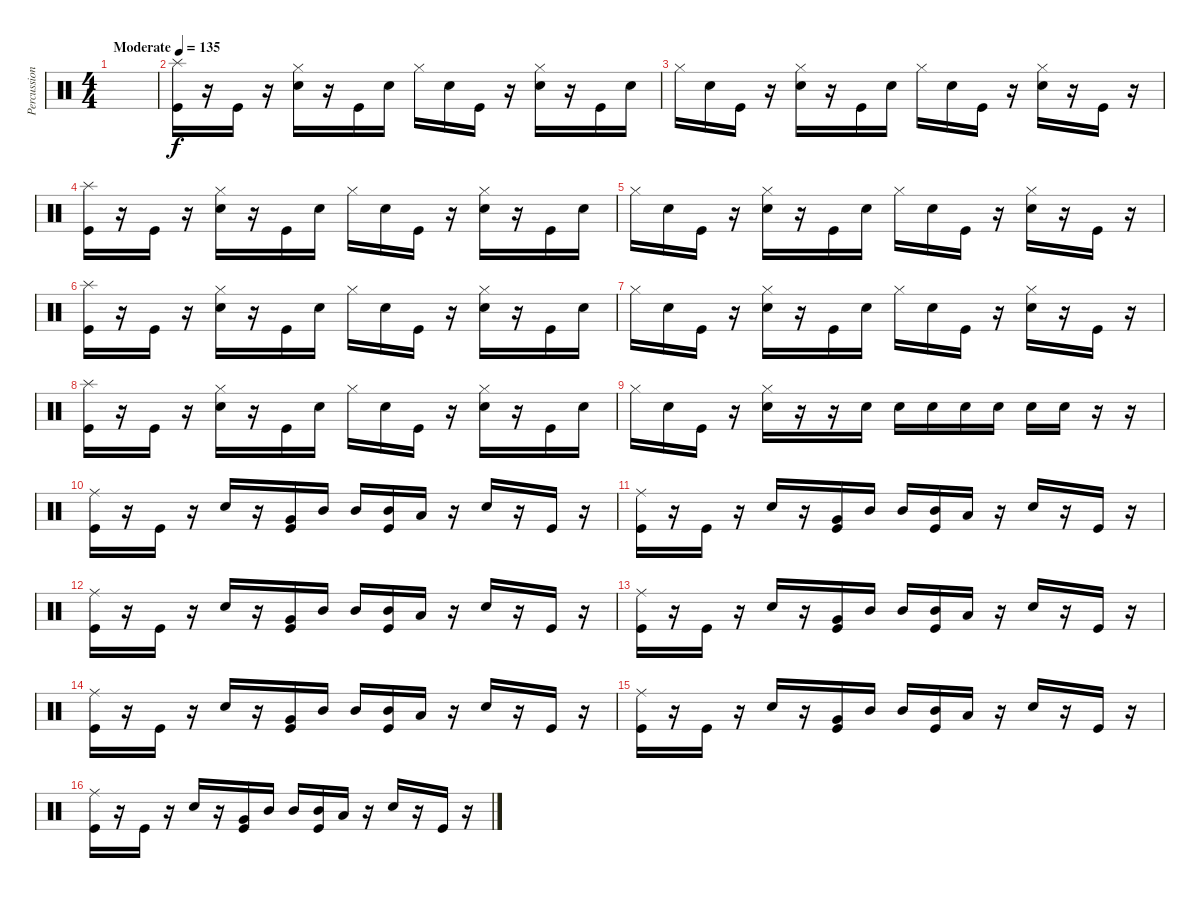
\track ("Percussion" "Percussion") {instrument percussion}
\staff {score}
\articulation defaults
\ts (4 4)
\tempo (135 "Moderate")
\clef neutral
\ks c
|
("Splash (hit)" "Kick (hit)").16 r.16 "Kick (hit)".16 r.16 ("Hi-Hat (closed)" "Snare (hit) 2").16 r.16 "Kick (hit)".16 "Snare (hit) 2".16 "Hi-Hat (closed)".16 "Snare (hit) 2".16 "Kick (hit)".16 r.16 ("Hi-Hat (closed)" "Snare (hit) 2").16 r.16 "Kick (hit)".16 "Snare (hit) 2".16 |
"Hi-Hat (closed)".16 "Snare (hit) 2".16 "Kick (hit)".16 r.16 ("Hi-Hat (closed)" "Snare (hit) 2").16 r.16 "Kick (hit)".16 "Snare (hit) 2".16 "Hi-Hat (closed)".16 "Snare (hit) 2".16 "Kick (hit)".16 r.16 ("Hi-Hat (closed)" "Snare (hit) 2").16 r.16 "Kick (hit)".16 r.16 |
("Splash (hit)" "Kick (hit)").16 r.16 "Kick (hit)".16 r.16 ("Hi-Hat (closed)" "Snare (hit) 2").16 r.16 "Kick (hit)".16 "Snare (hit) 2".16 "Hi-Hat (closed)".16 "Snare (hit) 2".16 "Kick (hit)".16 r.16 ("Hi-Hat (closed)" "Snare (hit) 2").16 r.16 "Kick (hit)".16 "Snare (hit) 2".16 |
"Hi-Hat (closed)".16 "Snare (hit) 2".16 "Kick (hit)".16 r.16 ("Hi-Hat (closed)" "Snare (hit) 2").16 r.16 "Kick (hit)".16 "Snare (hit) 2".16 "Hi-Hat (closed)".16 "Snare (hit) 2".16 "Kick (hit)".16 r.16 ("Hi-Hat (closed)" "Snare (hit) 2").16 r.16 "Kick (hit)".16 r.16 |
("Splash (hit)" "Kick (hit)").16 r.16 "Kick (hit)".16 r.16 ("Hi-Hat (closed)" "Snare (hit) 2").16 r.16 "Kick (hit)".16 "Snare (hit) 2".16 "Hi-Hat (closed)".16 "Snare (hit) 2".16 "Kick (hit)".16 r.16 ("Hi-Hat (closed)" "Snare (hit) 2").16 r.16 "Kick (hit)".16 "Snare (hit) 2".16 |
"Hi-Hat (closed)".16 "Snare (hit) 2".16 "Kick (hit)".16 r.16 ("Hi-Hat (closed)" "Snare (hit) 2").16 r.16 "Kick (hit)".16 "Snare (hit) 2".16 "Hi-Hat (closed)".16 "Snare (hit) 2".16 "Kick (hit)".16 r.16 ("Hi-Hat (closed)" "Snare (hit) 2").16 r.16 "Kick (hit)".16 r.16 |
("Splash (hit)" "Kick (hit)").16 r.16 "Kick (hit)".16 r.16 ("Hi-Hat (closed)" "Snare (hit) 2").16 r.16 "Kick (hit)".16 "Snare (hit) 2".16 "Hi-Hat (closed)".16 "Snare (hit) 2".16 "Kick (hit)".16 r.16 ("Hi-Hat (closed)" "Snare (hit) 2").16 r.16 "Kick (hit)".16 "Snare (hit) 2".16 |
"Hi-Hat (closed)".16 "Snare (hit) 2".16 "Kick (hit)".16 r.16 ("Hi-Hat (closed)" "Snare (hit) 2").16 r.16 r.16 "Snare (hit) 2".16 "Snare (hit) 2".16 "Snare (hit) 2".16 "Snare (hit) 2".16 "Snare (hit) 2".16 "Snare (hit) 2".16 "Snare (hit) 2".16 r.16 r.16 |
("Ride (middle)" "Kick (hit)").16 r.16 "Kick (hit)".16 r.16 "Snare (hit) 2".16 r.16 ("Very Low Tom (hit)" "Kick (hit)").16 "Mid Tom (hit)".16 "Mid Tom (hit)".16 ("Mid Tom (hit)" "Kick (hit)").16 "Low Floor Tom (hit)".16 r.16 "Snare (hit) 2".16 r.16 "Kick (hit)".16 r.16 |
("Ride (middle)" "Kick (hit)").16 r.16 "Kick (hit)".16 r.16 "Snare (hit) 2".16 r.16 ("Very Low Tom (hit)" "Kick (hit)").16 "Mid Tom (hit)".16 "Mid Tom (hit)".16 ("Mid Tom (hit)" "Kick (hit)").16 "Low Floor Tom (hit)".16 r.16 "Snare (hit) 2".16 r.16 "Kick (hit)".16 r.16 |
("Ride (middle)" "Kick (hit)").16 r.16 "Kick (hit)".16 r.16 "Snare (hit) 2".16 r.16 ("Very Low Tom (hit)" "Kick (hit)").16 "Mid Tom (hit)".16 "Mid Tom (hit)".16 ("Mid Tom (hit)" "Kick (hit)").16 "Low Floor Tom (hit)".16 r.16 "Snare (hit) 2".16 r.16 "Kick (hit)".16 r.16 |
("Ride (middle)" "Kick (hit)").16 r.16 "Kick (hit)".16 r.16 "Snare (hit) 2".16 r.16 ("Very Low Tom (hit)" "Kick (hit)").16 "Mid Tom (hit)".16 "Mid Tom (hit)".16 ("Mid Tom (hit)" "Kick (hit)").16 "Low Floor Tom (hit)".16 r.16 "Snare (hit) 2".16 r.16 "Kick (hit)".16 r.16 |
("Ride (middle)" "Kick (hit)").16 r.16 "Kick (hit)".16 r.16 "Snare (hit) 2".16 r.16 ("Very Low Tom (hit)" "Kick (hit)").16 "Mid Tom (hit)".16 "Mid Tom (hit)".16 ("Mid Tom (hit)" "Kick (hit)").16 "Low Floor Tom (hit)".16 r.16 "Snare (hit) 2".16 r.16 "Kick (hit)".16 r.16 |
("Ride (middle)" "Kick (hit)").16 r.16 "Kick (hit)".16 r.16 "Snare (hit) 2".16 r.16 ("Very Low Tom (hit)" "Kick (hit)").16 "Mid Tom (hit)".16 "Mid Tom (hit)".16 ("Mid Tom (hit)" "Kick (hit)").16 "Low Floor Tom (hit)".16 r.16 "Snare (hit) 2".16 r.16 "Kick (hit)".16 r.16 |
("Ride (middle)" "Kick (hit)").16 r.16 "Kick (hit)".16 r.16 "Snare (hit) 2".16 r.16 ("Very Low Tom (hit)" "Kick (hit)").16 "Mid Tom (hit)".16 "Mid Tom (hit)".16 ("Mid Tom (hit)" "Kick (hit)").16 "Low Floor Tom (hit)".16 r.16 "Snare (hit) 2".16 r.16 "Kick (hit)".16 r.16
